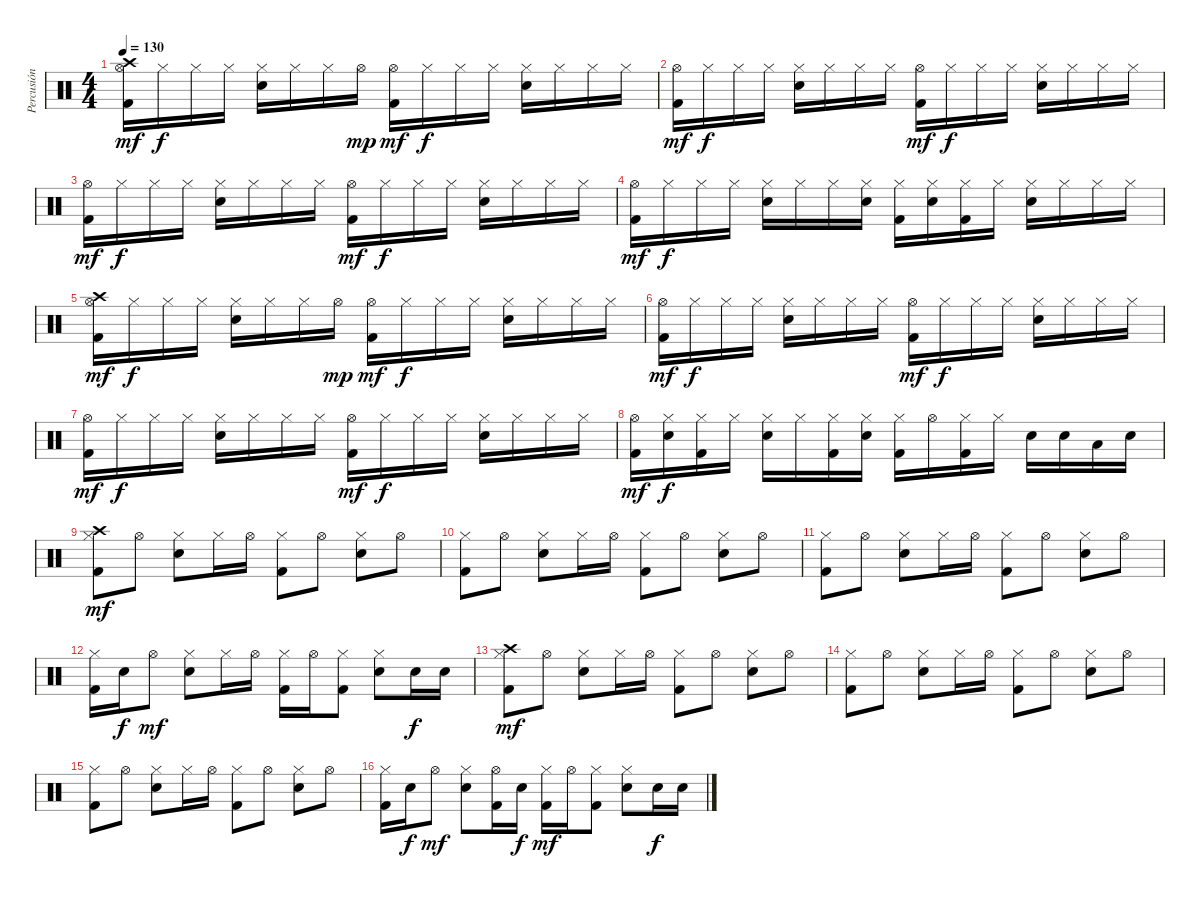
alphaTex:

\track ("Percusión" "Percusión") {instrument percussion}
\staff {score}
\articulation defaults
\ts (4 4)
\tempo 130
\clef neutral
\ks c
("Crash high (hit)" "Hi-Hat (open)" "Kick (hit) 2").16{dy mf} "Hi-Hat (closed)".16{dy f} "Hi-Hat (closed)".16 "Hi-Hat (closed)".16 ("Hi-Hat (closed)" "Snare (hit) 2").16 "Hi-Hat (closed)".16 "Hi-Hat (closed)".16 "Hi-Hat (open)".16{dy mp} ("Hi-Hat (open)" "Kick (hit) 2").16{dy mf} "Hi-Hat (closed)".16{dy f} "Hi-Hat (closed)".16 "Hi-Hat (closed)".16 ("Hi-Hat (closed)" "Snare (hit) 2").16 "Hi-Hat (closed)".16 "Hi-Hat (closed)".16 "Hi-Hat (closed)".16 |
("Hi-Hat (open)" "Kick (hit) 2").16{dy mf} "Hi-Hat (closed)".16{dy f} "Hi-Hat (closed)".16 "Hi-Hat (closed)".16 ("Hi-Hat (closed)" "Snare (hit) 2").16 "Hi-Hat (closed)".16 "Hi-Hat (closed)".16 "Hi-Hat (closed)".16 ("Hi-Hat (open)" "Kick (hit) 2").16{dy mf} "Hi-Hat (closed)".16{dy f} "Hi-Hat (closed)".16 "Hi-Hat (closed)".16 ("Hi-Hat (closed)" "Snare (hit) 2").16 "Hi-Hat (closed)".16 "Hi-Hat (closed)".16 "Hi-Hat (closed)".16 |
("Hi-Hat (open)" "Kick (hit) 2").16{dy mf} "Hi-Hat (closed)".16{dy f} "Hi-Hat (closed)".16 "Hi-Hat (closed)".16 ("Hi-Hat (closed)" "Snare (hit) 2").16 "Hi-Hat (closed)".16 "Hi-Hat (closed)".16 "Hi-Hat (closed)".16 ("Hi-Hat (open)" "Kick (hit) 2").16{dy mf} "Hi-Hat (closed)".16{dy f} "Hi-Hat (closed)".16 "Hi-Hat (closed)".16 ("Hi-Hat (closed)" "Snare (hit) 2").16 "Hi-Hat (closed)".16 "Hi-Hat (closed)".16 "Hi-Hat (closed)".16 |
("Hi-Hat (open)" "Kick (hit) 2").16{dy mf} "Hi-Hat (closed)".16{dy f} "Hi-Hat (closed)".16 "Hi-Hat (closed)".16 ("Hi-Hat (closed)" "Snare (hit) 2").16 "Hi-Hat (closed)".16 "Hi-Hat (closed)".16 ("Hi-Hat (closed)" "Snare (hit) 2").16 ("Hi-Hat (closed)" "Kick (hit) 2").16 ("Hi-Hat (closed)" "Snare (hit) 2").16 ("Hi-Hat (closed)" "Kick (hit) 2").16 "Hi-Hat (closed)".16 ("Hi-Hat (closed)" "Snare (hit) 2").16 "Hi-Hat (closed)".16 "Hi-Hat (closed)".16 "Hi-Hat (closed)".16 |
("Crash high (hit)" "Hi-Hat (open)" "Kick (hit) 2").16{dy mf} "Hi-Hat (closed)".16{dy f} "Hi-Hat (closed)".16 "Hi-Hat (closed)".16 ("Hi-Hat (closed)" "Snare (hit) 2").16 "Hi-Hat (closed)".16 "Hi-Hat (closed)".16 "Hi-Hat (open)".16{dy mp} ("Hi-Hat (open)" "Kick (hit) 2").16{dy mf} "Hi-Hat (closed)".16{dy f} "Hi-Hat (closed)".16 "Hi-Hat (closed)".16 ("Hi-Hat (closed)" "Snare (hit) 2").16 "Hi-Hat (closed)".16 "Hi-Hat (closed)".16 "Hi-Hat (closed)".16 |
("Hi-Hat (open)" "Kick (hit) 2").16{dy mf} "Hi-Hat (closed)".16{dy f} "Hi-Hat (closed)".16 "Hi-Hat (closed)".16 ("Hi-Hat (closed)" "Snare (hit) 2").16 "Hi-Hat (closed)".16 "Hi-Hat (closed)".16 "Hi-Hat (closed)".16 ("Hi-Hat (open)" "Kick (hit) 2").16{dy mf} "Hi-Hat (closed)".16{dy f} "Hi-Hat (closed)".16 "Hi-Hat (closed)".16 ("Hi-Hat (closed)" "Snare (hit) 2").16 "Hi-Hat (closed)".16 "Hi-Hat (closed)".16 "Hi-Hat (closed)".16 |
("Hi-Hat (open)" "Kick (hit) 2").16{dy mf} "Hi-Hat (closed)".16{dy f} "Hi-Hat (closed)".16 "Hi-Hat (closed)".16 ("Hi-Hat (closed)" "Snare (hit) 2").16 "Hi-Hat (closed)".16 "Hi-Hat (closed)".16 "Hi-Hat (closed)".16 ("Hi-Hat (open)" "Kick (hit) 2").16{dy mf} "Hi-Hat (closed)".16{dy f} "Hi-Hat (closed)".16 "Hi-Hat (closed)".16 ("Hi-Hat (closed)" "Snare (hit) 2").16 "Hi-Hat (closed)".16 "Hi-Hat (closed)".16 "Hi-Hat (closed)".16 |
("Hi-Hat (open)" "Kick (hit) 2").16{dy mf} ("Hi-Hat (closed)" "Snare (hit) 2").16{dy f} ("Hi-Hat (closed)" "Kick (hit) 2").16 "Hi-Hat (closed)".16 ("Hi-Hat (closed)" "Snare (hit) 2").16 "Hi-Hat (closed)".16 ("Hi-Hat (closed)" "Kick (hit) 2").16 ("Hi-Hat (closed)" "Snare (hit) 2").16 ("Hi-Hat (closed)" "Kick (hit) 2").16 "Hi-Hat (open)".16 ("Hi-Hat (closed)" "Kick (hit) 2").16 "Hi-Hat (closed)".16 "Snare (hit) 2".16 "Snare (hit) 2".16 "Low Tom (hit)".16 "Snare (hit) 2".16 |
("Crash high (hit)" "Hi-Hat (closed)" "Kick (hit) 2").8{dy mf} "Hi-Hat (open)".8 ("Hi-Hat (closed)" "Snare (hit) 2").8 "Hi-Hat (closed)".16 "Hi-Hat (open)".16 ("Hi-Hat (closed)" "Kick (hit) 2").8 "Hi-Hat (open)".8 ("Hi-Hat (closed)" "Snare (hit) 2").8 "Hi-Hat (open)".8 |
("Hi-Hat (closed)" "Kick (hit) 2").8 "Hi-Hat (open)".8 ("Hi-Hat (closed)" "Snare (hit) 2").8 "Hi-Hat (closed)".16 "Hi-Hat (open)".16 ("Hi-Hat (closed)" "Kick (hit) 2").8 "Hi-Hat (open)".8 ("Hi-Hat (closed)" "Snare (hit) 2").8 "Hi-Hat (open)".8 |
("Hi-Hat (closed)" "Kick (hit) 2").8 "Hi-Hat (open)".8 ("Hi-Hat (closed)" "Snare (hit) 2").8 "Hi-Hat (closed)".16 "Hi-Hat (open)".16 ("Hi-Hat (closed)" "Kick (hit) 2").8 "Hi-Hat (open)".8 ("Hi-Hat (closed)" "Snare (hit) 2").8 "Hi-Hat (open)".8 |
("Hi-Hat (closed)" "Kick (hit) 2").16 "Snare (hit) 2".16{dy f} "Hi-Hat (open)".8{dy mf} ("Hi-Hat (closed)" "Snare (hit) 2").8 "Hi-Hat (closed)".16 "Hi-Hat (open)".16 ("Hi-Hat (closed)" "Kick (hit) 2").16 "Hi-Hat (open)".16 ("Hi-Hat (closed)" "Kick (hit) 2").8 ("Hi-Hat (closed)" "Snare (hit) 2").8 "Snare (hit) 2".16{dy f} "Snare (hit) 2".16 |
("Crash high (hit)" "Hi-Hat (closed)" "Kick (hit) 2").8{dy mf} "Hi-Hat (open)".8 ("Hi-Hat (closed)" "Snare (hit) 2").8 "Hi-Hat (closed)".16 "Hi-Hat (open)".16 ("Hi-Hat (closed)" "Kick (hit) 2").8 "Hi-Hat (open)".8 ("Hi-Hat (closed)" "Snare (hit) 2").8 "Hi-Hat (open)".8 |
("Hi-Hat (closed)" "Kick (hit) 2").8 "Hi-Hat (open)".8 ("Hi-Hat (closed)" "Snare (hit) 2").8 "Hi-Hat (closed)".16 "Hi-Hat (open)".16 ("Hi-Hat (closed)" "Kick (hit) 2").8 "Hi-Hat (open)".8 ("Hi-Hat (closed)" "Snare (hit) 2").8 "Hi-Hat (open)".8 |
("Hi-Hat (closed)" "Kick (hit) 2").8 "Hi-Hat (open)".8 ("Hi-Hat (closed)" "Snare (hit) 2").8 "Hi-Hat (closed)".16 "Hi-Hat (open)".16 ("Hi-Hat (closed)" "Kick (hit) 2").8 "Hi-Hat (open)".8 ("Hi-Hat (closed)" "Snare (hit) 2").8 "Hi-Hat (open)".8 |
("Hi-Hat (closed)" "Kick (hit) 2").16 "Snare (hit) 2".16{dy f} "Hi-Hat (open)".8{dy mf} ("Hi-Hat (closed)" "Snare (hit) 2").8 ("Hi-Hat (open)" "Kick (hit) 2").16 "Snare (hit) 2".16{dy f} ("Hi-Hat (closed)" "Kick (hit) 2").16{dy mf} "Hi-Hat (open)".16 ("Hi-Hat (closed)" "Kick (hit) 2").8 ("Hi-Hat (closed)" "Snare (hit) 2").8 "Snare (hit) 2".16{dy f} "Snare (hit) 2".16
